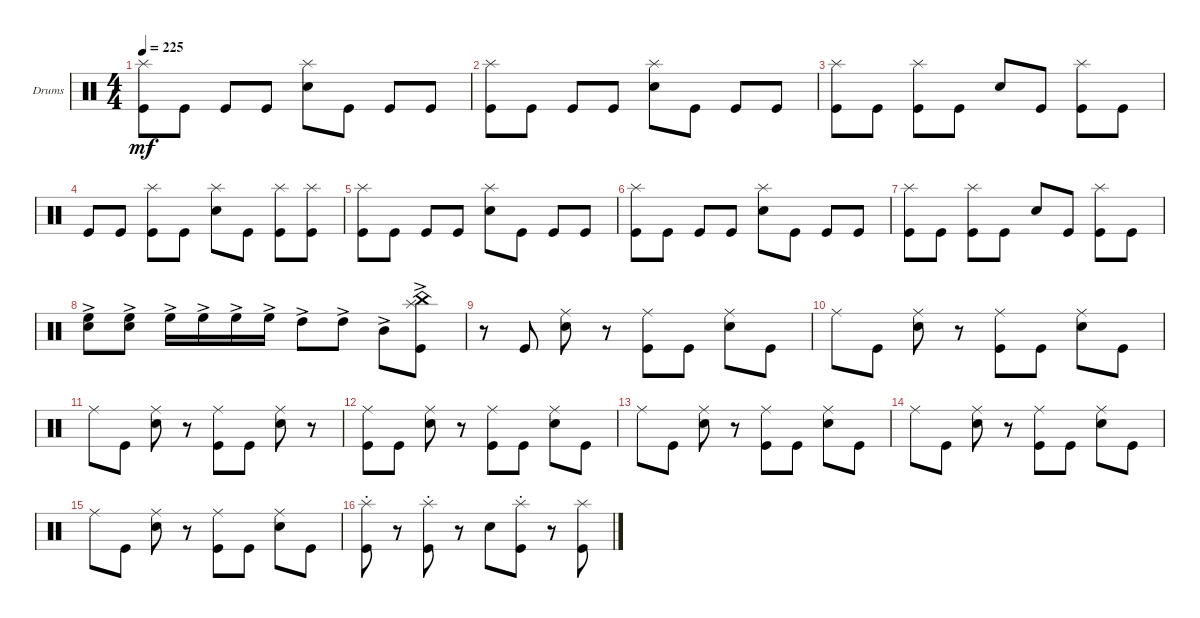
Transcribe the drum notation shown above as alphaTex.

\bracketExtendMode groupsimilarinstruments
\firstSystemTrackNameOrientation horizontal
\otherSystemsTrackNameOrientation horizontal
\track ("Drumkit" "Drums") {instrument percussion}
\staff {score}
\articulation defaults
\ts (4 4)
\tempo 225
\clef neutral
\ks c
("Kick (hit)" "Splash (hit)").8{dy mf} "Kick (hit)".8 "Kick (hit)".8 "Kick (hit)".8 ("Snare (hit) 2" "Splash (hit)").8 "Kick (hit)".8 "Kick (hit)".8 "Kick (hit)".8 |
("Kick (hit)" "Splash (hit)").8 "Kick (hit)".8 "Kick (hit)".8 "Kick (hit)".8 ("Snare (hit) 2" "Splash (hit)").8 "Kick (hit)".8 "Kick (hit)".8 "Kick (hit)".8 |
("Kick (hit)" "Splash (hit)").8 "Kick (hit)".8 ("Kick (hit)" "Splash (hit)").8 "Kick (hit)".8 "Snare (hit) 2".8 "Kick (hit)".8 ("Kick (hit)" "Splash (hit)").8 "Kick (hit)".8 |
"Kick (hit)".8 "Kick (hit)".8 ("Kick (hit)" "Splash (hit)").8 "Kick (hit)".8 ("Snare (hit) 2" "Splash (hit)").8 "Kick (hit)".8 ("Kick (hit)" "Splash (hit)").8 ("Kick (hit)" "Splash (hit)").8 |
("Kick (hit)" "Splash (hit)").8 "Kick (hit)".8 "Kick (hit)".8 "Kick (hit)".8 ("Snare (hit) 2" "Splash (hit)").8 "Kick (hit)".8 "Kick (hit)".8 "Kick (hit)".8 |
("Kick (hit)" "Splash (hit)").8 "Kick (hit)".8 "Kick (hit)".8 "Kick (hit)".8 ("Snare (hit) 2" "Splash (hit)").8 "Kick (hit)".8 "Kick (hit)".8 "Kick (hit)".8 |
("Kick (hit)" "Splash (hit)").8 "Kick (hit)".8 ("Kick (hit)" "Splash (hit)").8 "Kick (hit)".8 "Snare (hit) 2".8 "Kick (hit)".8 ("Kick (hit)" "Splash (hit)").8 "Kick (hit)".8 |
("Snare (hit) 2"{ac} "High Floor Tom (hit)"{ac}).8 ("Snare (hit) 2"{ac} "High Floor Tom (hit)"{ac}).8 "High Floor Tom (hit)"{ac}.16 "High Floor Tom (hit)"{ac}.16 "High Floor Tom (hit)"{ac}.16 "High Floor Tom (hit)"{ac}.16 "High Tom (hit)"{ac}.8 "High Tom (hit)"{ac}.8 "Mid Tom (hit)"{ac}.8 ("Kick (hit)"{ac} "China (hit)"{ac} "Splash (hit)"{ac}).8 |
r.8 "Kick (hit)".8 ("Snare (hit) 2" "Ride (middle)").8 r.8 ("Kick (hit)" "Ride (middle)").8 "Kick (hit)".8 ("Snare (hit) 2" "Ride (middle)").8 "Kick (hit)".8 |
"Ride (middle)".8 "Kick (hit)".8 ("Snare (hit) 2" "Ride (middle)").8 r.8 ("Kick (hit)" "Ride (middle)").8 "Kick (hit)".8 ("Snare (hit) 2" "Ride (middle)").8 "Kick (hit)".8 |
"Ride (middle)".8 "Kick (hit)".8 ("Snare (hit) 2" "Ride (middle)").8 r.8 ("Kick (hit)" "Ride (middle)").8 "Kick (hit)".8 ("Snare (hit) 2" "Ride (middle)").8 r.8 |
("Ride (middle)" "Kick (hit)").8 "Kick (hit)".8 ("Ride (middle)" "Snare (hit) 2").8 r.8 ("Ride (middle)" "Kick (hit)").8 "Kick (hit)".8 ("Ride (middle)" "Snare (hit) 2").8 "Kick (hit)".8 |
"Ride (middle)".8 "Kick (hit)".8 ("Snare (hit) 2" "Ride (middle)").8 r.8 ("Kick (hit)" "Ride (middle)").8 "Kick (hit)".8 ("Snare (hit) 2" "Ride (middle)").8 "Kick (hit)".8 |
"Ride (middle)".8 "Kick (hit)".8 ("Snare (hit) 2" "Ride (middle)").8 r.8 ("Kick (hit)" "Ride (middle)").8 "Kick (hit)".8 ("Snare (hit) 2" "Ride (middle)").8 "Kick (hit)".8 |
"Ride (middle)".8 "Kick (hit)".8 ("Snare (hit) 2" "Ride (middle)").8 r.8 ("Kick (hit)" "Ride (middle)").8 "Kick (hit)".8 ("Snare (hit) 2" "Ride (middle)").8 "Kick (hit)".8 |
("Kick (hit)" "Splash (hit)"{st}).8 r.8 ("Kick (hit)" "Splash (hit)"{st}).8 r.8 "Snare (hit) 2".8 ("Kick (hit)" "Splash (hit)"{st}).8 r.8 ("Kick (hit)" "Splash (hit)").8
